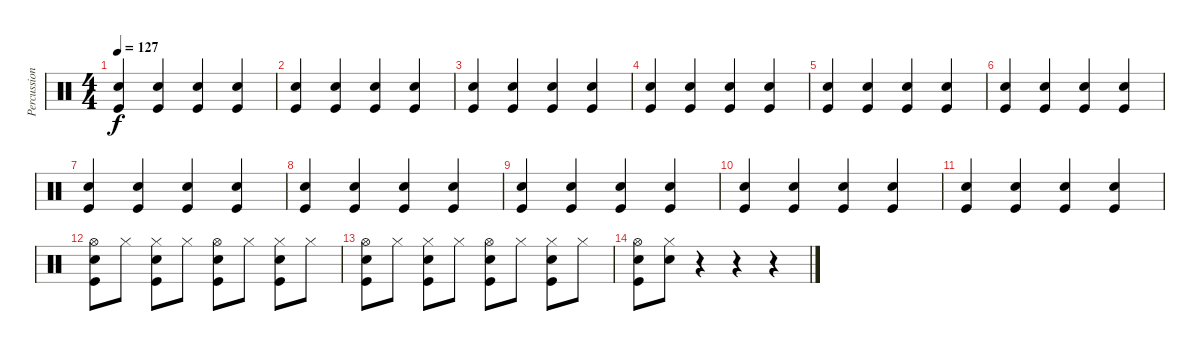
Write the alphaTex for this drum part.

\track ("Percussion" "Percussion") {instrument percussion}
\staff {score}
\articulation defaults
\ts (4 4)
\tempo 127
\clef neutral
\ks c
("Snare (hit) 2" "Kick (hit)").4{dy f} ("Snare (hit) 2" "Kick (hit)").4 ("Snare (hit) 2" "Kick (hit)").4 ("Snare (hit) 2" "Kick (hit)").4 |
("Snare (hit) 2" "Kick (hit)").4 ("Snare (hit) 2" "Kick (hit)").4 ("Snare (hit) 2" "Kick (hit)").4 ("Snare (hit) 2" "Kick (hit)").4 |
("Snare (hit) 2" "Kick (hit)").4 ("Snare (hit) 2" "Kick (hit)").4 ("Snare (hit) 2" "Kick (hit)").4 ("Snare (hit) 2" "Kick (hit)").4 |
("Snare (hit) 2" "Kick (hit)").4 ("Snare (hit) 2" "Kick (hit)").4 ("Snare (hit) 2" "Kick (hit)").4 ("Snare (hit) 2" "Kick (hit)").4 |
("Snare (hit) 2" "Kick (hit)").4 ("Snare (hit) 2" "Kick (hit)").4 ("Snare (hit) 2" "Kick (hit)").4 ("Snare (hit) 2" "Kick (hit)").4 |
("Snare (hit) 2" "Kick (hit)").4 ("Snare (hit) 2" "Kick (hit)").4 ("Snare (hit) 2" "Kick (hit)").4 ("Snare (hit) 2" "Kick (hit)").4 |
("Snare (hit) 2" "Kick (hit)").4 ("Snare (hit) 2" "Kick (hit)").4 ("Snare (hit) 2" "Kick (hit)").4 ("Snare (hit) 2" "Kick (hit)").4 |
("Snare (hit) 2" "Kick (hit)").4 ("Snare (hit) 2" "Kick (hit)").4 ("Snare (hit) 2" "Kick (hit)").4 ("Snare (hit) 2" "Kick (hit)").4 |
("Snare (hit) 2" "Kick (hit)").4 ("Snare (hit) 2" "Kick (hit)").4 ("Snare (hit) 2" "Kick (hit)").4 ("Snare (hit) 2" "Kick (hit)").4 |
("Snare (hit) 2" "Kick (hit)").4 ("Snare (hit) 2" "Kick (hit)").4 ("Snare (hit) 2" "Kick (hit)").4 ("Snare (hit) 2" "Kick (hit)").4 |
("Snare (hit) 2" "Kick (hit)").4 ("Snare (hit) 2" "Kick (hit)").4 ("Snare (hit) 2" "Kick (hit)").4 ("Snare (hit) 2" "Kick (hit)").4 |
("Hi-Hat (open)" "Snare (hit) 2" "Kick (hit)").8 "Hi-Hat (closed)".8 ("Hi-Hat (closed)" "Snare (hit) 2" "Kick (hit)").8 "Hi-Hat (closed)".8 ("Hi-Hat (open)" "Snare (hit) 2" "Kick (hit)").8 "Hi-Hat (closed)".8 ("Hi-Hat (closed)" "Snare (hit) 2" "Kick (hit)").8 "Hi-Hat (closed)".8 |
("Hi-Hat (open)" "Snare (hit) 2" "Kick (hit)").8 "Hi-Hat (closed)".8 ("Hi-Hat (closed)" "Snare (hit) 2" "Kick (hit)").8 "Hi-Hat (closed)".8 ("Hi-Hat (open)" "Snare (hit) 2" "Kick (hit)").8 "Hi-Hat (closed)".8 ("Hi-Hat (closed)" "Snare (hit) 2" "Kick (hit)").8 "Hi-Hat (closed)".8 |
("Hi-Hat (open)" "Snare (hit) 2" "Kick (hit)").8 ("Hi-Hat (closed)" "Snare (hit) 2").8 r.4 r.4 r.4
